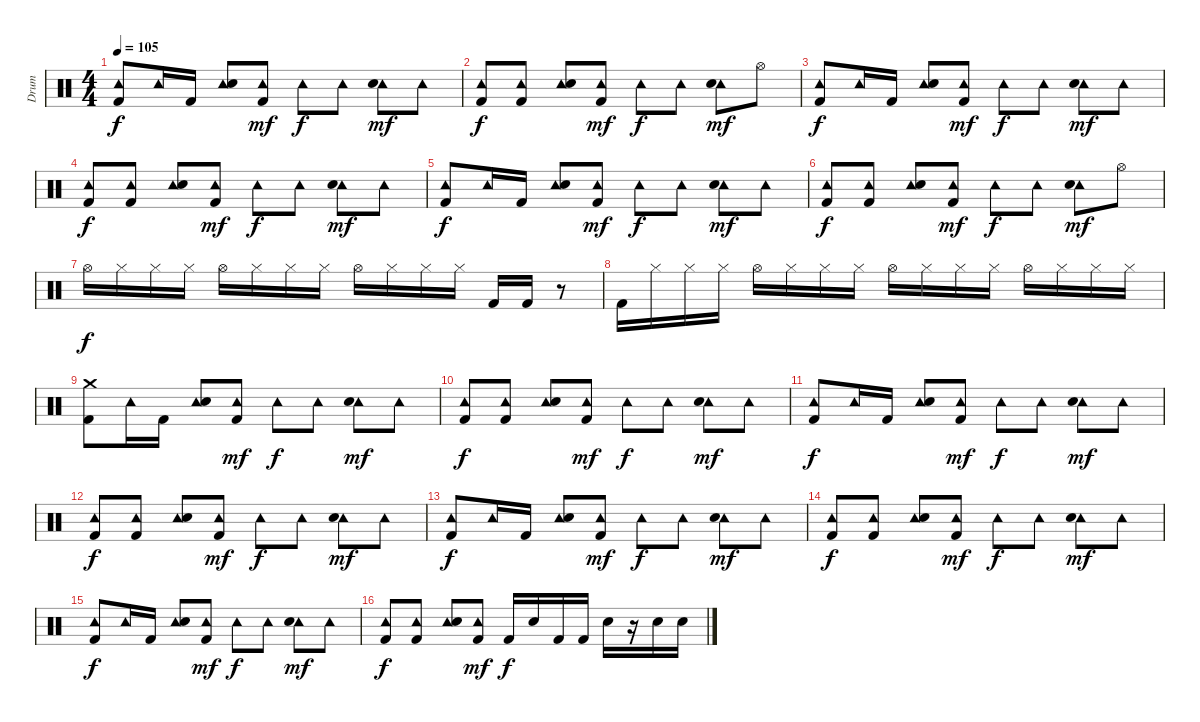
\track ("Drum" "Drum") {instrument percussion}
\staff {score}
\articulation defaults
\ts (4 4)
\tempo 105
\clef neutral
\ks c
("Tambourine (hit)" "Kick (hit) 2").8{dy f} "Tambourine (hit)".16 "Kick (hit) 2".16 ("Tambourine (hit)" "Electric Snare (hit)").8 ("Tambourine (hit)" "Kick (hit) 2").8{dy mf} "Tambourine (hit)".8{dy f} "Tambourine (hit)".8 ("Tambourine (hit)" "Electric Snare (hit)").8{dy mf} "Tambourine (hit)".8 |
("Tambourine (hit)" "Kick (hit) 2").8{dy f} ("Tambourine (hit)" "Kick (hit) 2").8 ("Tambourine (hit)" "Electric Snare (hit)").8 ("Tambourine (hit)" "Kick (hit) 2").8{dy mf} "Tambourine (hit)".8{dy f} "Tambourine (hit)".8 ("Tambourine (hit)" "Electric Snare (hit)").8{dy mf} "Hi-Hat (open)".8 |
("Tambourine (hit)" "Kick (hit) 2").8{dy f} "Tambourine (hit)".16 "Kick (hit) 2".16 ("Tambourine (hit)" "Electric Snare (hit)").8 ("Tambourine (hit)" "Kick (hit) 2").8{dy mf} "Tambourine (hit)".8{dy f} "Tambourine (hit)".8 ("Tambourine (hit)" "Electric Snare (hit)").8{dy mf} "Tambourine (hit)".8 |
("Tambourine (hit)" "Kick (hit) 2").8{dy f} ("Tambourine (hit)" "Kick (hit) 2").8 ("Tambourine (hit)" "Electric Snare (hit)").8 ("Tambourine (hit)" "Kick (hit) 2").8{dy mf} "Tambourine (hit)".8{dy f} "Tambourine (hit)".8 ("Tambourine (hit)" "Electric Snare (hit)").8{dy mf} "Tambourine (hit)".8 |
("Tambourine (hit)" "Kick (hit) 2").8{dy f} "Tambourine (hit)".16 "Kick (hit) 2".16 ("Tambourine (hit)" "Electric Snare (hit)").8 ("Tambourine (hit)" "Kick (hit) 2").8{dy mf} "Tambourine (hit)".8{dy f} "Tambourine (hit)".8 ("Tambourine (hit)" "Electric Snare (hit)").8{dy mf} "Tambourine (hit)".8 |
("Tambourine (hit)" "Kick (hit) 2").8{dy f} ("Tambourine (hit)" "Kick (hit) 2").8 ("Tambourine (hit)" "Electric Snare (hit)").8 ("Tambourine (hit)" "Kick (hit) 2").8{dy mf} "Tambourine (hit)".8{dy f} "Tambourine (hit)".8 ("Tambourine (hit)" "Electric Snare (hit)").8{dy mf} "Hi-Hat (open)".8 |
"Hi-Hat (open)".16{dy f} "Hi-Hat (closed)".16 "Hi-Hat (closed)".16 "Hi-Hat (closed)".16 "Hi-Hat (open)".16 "Hi-Hat (closed)".16 "Hi-Hat (closed)".16 "Hi-Hat (closed)".16 "Hi-Hat (open)".16 "Hi-Hat (closed)".16 "Hi-Hat (closed)".16 "Hi-Hat (closed)".16 "Kick (hit) 2".16 "Kick (hit) 2".16 r.8 |
"Kick (hit) 2".16 "Hi-Hat (closed)".16 "Hi-Hat (closed)".16 "Hi-Hat (closed)".16 "Hi-Hat (open)".16 "Hi-Hat (closed)".16 "Hi-Hat (closed)".16 "Hi-Hat (closed)".16 "Hi-Hat (open)".16 "Hi-Hat (closed)".16 "Hi-Hat (closed)".16 "Hi-Hat (closed)".16 "Hi-Hat (open)".16 "Hi-Hat (closed)".16 "Hi-Hat (closed)".16 "Hi-Hat (closed)".16 |
("Crash medium (hit)" "Kick (hit) 2").8 "Tambourine (hit)".16 "Kick (hit) 2".16 ("Tambourine (hit)" "Electric Snare (hit)").8 ("Tambourine (hit)" "Kick (hit) 2").8{dy mf} "Tambourine (hit)".8{dy f} "Tambourine (hit)".8 ("Tambourine (hit)" "Electric Snare (hit)").8{dy mf} "Tambourine (hit)".8 |
("Tambourine (hit)" "Kick (hit) 2").8{dy f} ("Tambourine (hit)" "Kick (hit) 2").8 ("Tambourine (hit)" "Electric Snare (hit)").8 ("Tambourine (hit)" "Kick (hit) 2").8{dy mf} "Tambourine (hit)".8{dy f} "Tambourine (hit)".8 ("Tambourine (hit)" "Electric Snare (hit)").8{dy mf} "Tambourine (hit)".8 |
("Tambourine (hit)" "Kick (hit) 2").8{dy f} "Tambourine (hit)".16 "Kick (hit) 2".16 ("Tambourine (hit)" "Electric Snare (hit)").8 ("Tambourine (hit)" "Kick (hit) 2").8{dy mf} "Tambourine (hit)".8{dy f} "Tambourine (hit)".8 ("Tambourine (hit)" "Electric Snare (hit)").8{dy mf} "Tambourine (hit)".8 |
("Tambourine (hit)" "Kick (hit) 2").8{dy f} ("Tambourine (hit)" "Kick (hit) 2").8 ("Tambourine (hit)" "Electric Snare (hit)").8 ("Tambourine (hit)" "Kick (hit) 2").8{dy mf} "Tambourine (hit)".8{dy f} "Tambourine (hit)".8 ("Tambourine (hit)" "Electric Snare (hit)").8{dy mf} "Tambourine (hit)".8 |
("Tambourine (hit)" "Kick (hit) 2").8{dy f} "Tambourine (hit)".16 "Kick (hit) 2".16 ("Tambourine (hit)" "Electric Snare (hit)").8 ("Tambourine (hit)" "Kick (hit) 2").8{dy mf} "Tambourine (hit)".8{dy f} "Tambourine (hit)".8 ("Tambourine (hit)" "Electric Snare (hit)").8{dy mf} "Tambourine (hit)".8 |
("Tambourine (hit)" "Kick (hit) 2").8{dy f} ("Tambourine (hit)" "Kick (hit) 2").8 ("Tambourine (hit)" "Electric Snare (hit)").8 ("Tambourine (hit)" "Kick (hit) 2").8{dy mf} "Tambourine (hit)".8{dy f} "Tambourine (hit)".8 ("Tambourine (hit)" "Electric Snare (hit)").8{dy mf} "Tambourine (hit)".8 |
("Tambourine (hit)" "Kick (hit) 2").8{dy f} "Tambourine (hit)".16 "Kick (hit) 2".16 ("Tambourine (hit)" "Electric Snare (hit)").8 ("Tambourine (hit)" "Kick (hit) 2").8{dy mf} "Tambourine (hit)".8{dy f} "Tambourine (hit)".8 ("Tambourine (hit)" "Electric Snare (hit)").8{dy mf} "Tambourine (hit)".8 |
("Tambourine (hit)" "Kick (hit) 2").8{dy f} ("Tambourine (hit)" "Kick (hit) 2").8 ("Tambourine (hit)" "Electric Snare (hit)").8 ("Tambourine (hit)" "Kick (hit) 2").8{dy mf} "Kick (hit) 2".16{dy f} "Electric Snare (hit)".16 "Kick (hit) 2".16 "Kick (hit) 2".16 "Electric Snare (hit)".16 r.16 "Electric Snare (hit)".16 "Electric Snare (hit)".16
